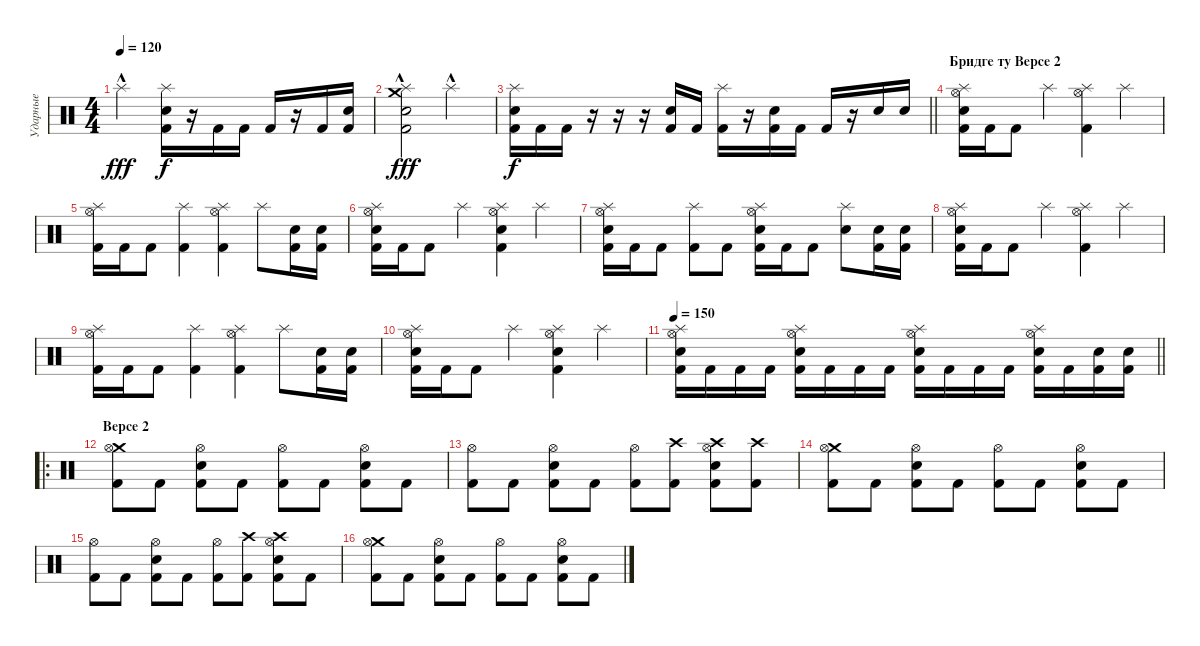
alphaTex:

\track ("Ударные" "Ударные") {instrument percussion}
\staff {score}
\articulation defaults
\ts (4 4)
\tempo 120
\clef neutral
\ks c "Splash (hit)"{hac}.2{dy fff}
("Splash (hit)" "Snare (hit) 2" "Kick (hit) 2").16{dy f} r.16 "Kick (hit) 2".16 "Kick (hit) 2".16 "Kick (hit) 2".16 r.16 "Kick (hit) 2".16 ("Snare (hit) 2" "Kick (hit) 2").16 |
("Crash medium (hit)" "Splash (hit)"{hac} "Snare (hit) 2" "Kick (hit) 2").2{dy fff} "Splash (hit)"{hac}.2 |
\barLineRight lightlight
("Splash (hit)" "Snare (hit) 2" "Kick (hit) 2").16{dy f} "Kick (hit) 2".16 "Kick (hit) 2".16 r.16 r.16 r.16 ("Snare (hit) 2" "Kick (hit) 2").16 "Kick (hit) 2".16 ("Splash (hit)" "Kick (hit) 2").16 r.16 ("Snare (hit) 2" "Kick (hit) 2").16 "Kick (hit) 2".16 "Kick (hit) 2".16 r.16 "Snare (hit) 2".16 "Snare (hit) 2".16 |
\section ("" "Бридге ту Версе 2")
("Hi-Hat (open)" "Splash (hit)" "Snare (hit) 2" "Kick (hit) 2").16 "Kick (hit) 2".16 "Kick (hit) 2".8 "Splash (hit)".4 ("Hi-Hat (open)" "Splash (hit)" "Kick (hit) 2").4 "Splash (hit)".4 |
("Hi-Hat (open)" "Splash (hit)" "Kick (hit) 2").16 "Kick (hit) 2".16 "Kick (hit) 2".8 ("Splash (hit)" "Kick (hit) 2").4 ("Hi-Hat (open)" "Splash (hit)" "Kick (hit) 2").4 "Splash (hit)".8 ("Snare (hit) 2" "Kick (hit) 2").16 ("Snare (hit) 2" "Kick (hit) 2").16 |
("Hi-Hat (open)" "Splash (hit)" "Snare (hit) 2" "Kick (hit) 2").16 "Kick (hit) 2".16 "Kick (hit) 2".8 "Splash (hit)".4 ("Hi-Hat (open)" "Splash (hit)" "Snare (hit) 2" "Kick (hit) 2").4 "Splash (hit)".4 |
("Hi-Hat (open)" "Splash (hit)" "Snare (hit) 2" "Kick (hit) 2").16 "Kick (hit) 2".16 "Kick (hit) 2".8 ("Splash (hit)" "Kick (hit) 2").8 "Kick (hit) 2".8 ("Hi-Hat (open)" "Splash (hit)" "Snare (hit) 2" "Kick (hit) 2").16 "Kick (hit) 2".16 "Kick (hit) 2".8 ("Splash (hit)" "Snare (hit) 2").8 ("Snare (hit) 2" "Kick (hit) 2").16 ("Snare (hit) 2" "Kick (hit) 2").16 |
("Hi-Hat (open)" "Splash (hit)" "Snare (hit) 2" "Kick (hit) 2").16 "Kick (hit) 2".16 "Kick (hit) 2".8 "Splash (hit)".4 ("Hi-Hat (open)" "Splash (hit)" "Kick (hit) 2").4 "Splash (hit)".4 |
("Hi-Hat (open)" "Splash (hit)" "Kick (hit) 2").16 "Kick (hit) 2".16 "Kick (hit) 2".8 ("Splash (hit)" "Kick (hit) 2").4 ("Hi-Hat (open)" "Splash (hit)" "Kick (hit) 2").4 "Splash (hit)".8 ("Snare (hit) 2" "Kick (hit) 2").16 ("Snare (hit) 2" "Kick (hit) 2").16 |
("Hi-Hat (open)" "Splash (hit)" "Snare (hit) 2" "Kick (hit) 2").16 "Kick (hit) 2".16 "Kick (hit) 2".8 "Splash (hit)".4 ("Hi-Hat (open)" "Splash (hit)" "Snare (hit) 2" "Kick (hit) 2").4 "Splash (hit)".4 |
\tempo 150
\barLineRight lightlight
("Hi-Hat (open)" "Splash (hit)" "Snare (hit) 2" "Kick (hit) 2").16 "Kick (hit) 2".16 "Kick (hit) 2".16 "Kick (hit) 2".16 ("Hi-Hat (open)" "Splash (hit)" "Snare (hit) 2" "Kick (hit) 2").16 "Kick (hit) 2".16 "Kick (hit) 2".16 "Kick (hit) 2".16 ("Hi-Hat (open)" "Splash (hit)" "Snare (hit) 2" "Kick (hit) 2").16 "Kick (hit) 2".16 "Kick (hit) 2".16 "Kick (hit) 2".16 ("Hi-Hat (open)" "Splash (hit)" "Snare (hit) 2" "Kick (hit) 2").16 "Kick (hit) 2".16 ("Snare (hit) 2" "Kick (hit) 2").16 ("Snare (hit) 2" "Kick (hit) 2").16 |
\ro
\section ("" "Версе 2")
("Crash medium (hit)" "Hi-Hat (open)" "Kick (hit) 2").8 "Kick (hit) 2".8 ("Hi-Hat (open)" "Snare (hit) 2" "Kick (hit) 2").8 "Kick (hit) 2".8 ("Hi-Hat (open)" "Kick (hit) 2").8 "Kick (hit) 2".8 ("Hi-Hat (open)" "Snare (hit) 2" "Kick (hit) 2").8 "Kick (hit) 2".8 |
("Hi-Hat (open)" "Kick (hit) 2").8 "Kick (hit) 2".8 ("Hi-Hat (open)" "Snare (hit) 2" "Kick (hit) 2").8 "Kick (hit) 2".8 ("Hi-Hat (open)" "Kick (hit) 2").8 ("Crash high (hit)" "Kick (hit) 2").8 ("Crash high (hit)" "Hi-Hat (open)" "Snare (hit) 2" "Kick (hit) 2").8 ("Crash high (hit)" "Kick (hit) 2").8 |
("Crash medium (hit)" "Hi-Hat (open)" "Kick (hit) 2").8 "Kick (hit) 2".8 ("Hi-Hat (open)" "Snare (hit) 2" "Kick (hit) 2").8 "Kick (hit) 2".8 ("Hi-Hat (open)" "Kick (hit) 2").8 "Kick (hit) 2".8 ("Hi-Hat (open)" "Snare (hit) 2" "Kick (hit) 2").8 "Kick (hit) 2".8 |
("Hi-Hat (open)" "Kick (hit) 2").8 "Kick (hit) 2".8 ("Hi-Hat (open)" "Snare (hit) 2" "Kick (hit) 2").8 "Kick (hit) 2".8 ("Hi-Hat (open)" "Kick (hit) 2").8 ("Crash high (hit)" "Kick (hit) 2").8 ("Crash high (hit)" "Hi-Hat (open)" "Snare (hit) 2" "Kick (hit) 2").8 "Kick (hit) 2".8 |
("Crash medium (hit)" "Hi-Hat (open)" "Kick (hit) 2").8 "Kick (hit) 2".8 ("Hi-Hat (open)" "Snare (hit) 2" "Kick (hit) 2").8 "Kick (hit) 2".8 ("Hi-Hat (open)" "Kick (hit) 2").8 "Kick (hit) 2".8 ("Hi-Hat (open)" "Snare (hit) 2" "Kick (hit) 2").8 "Kick (hit) 2".8
